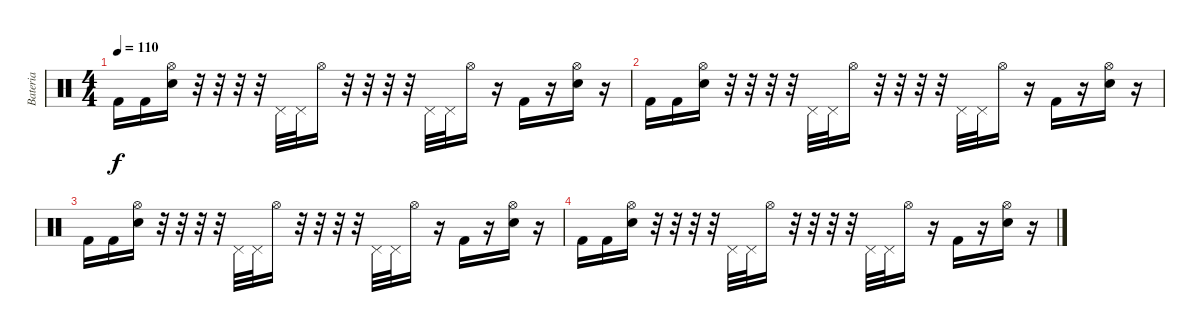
\track ("Bateria" "Bateria") {instrument percussion}
\staff {score}
\articulation defaults
\ts (4 4)
\tempo 110
\clef neutral
\ks c "Kick (hit) 2".16{dy f} "Kick (hit) 2".16
("Hi-Hat (open)" "Electric Snare (hit)").16 r.32 r.32 r.32 r.32 "Pedal Hi-Hat (hit)".32 "Pedal Hi-Hat (hit)".32 "Hi-Hat (open)".16 r.32 r.32 r.32 r.32 "Pedal Hi-Hat (hit)".32 "Pedal Hi-Hat (hit)".32 "Hi-Hat (open)".16 r.16 "Kick (hit) 2".16 r.16 ("Hi-Hat (open)" "Electric Snare (hit)").16 r.16 |
"Kick (hit) 2".16 "Kick (hit) 2".16 ("Hi-Hat (open)" "Electric Snare (hit)").16 r.32 r.32 r.32 r.32 "Pedal Hi-Hat (hit)".32 "Pedal Hi-Hat (hit)".32 "Hi-Hat (open)".16 r.32 r.32 r.32 r.32 "Pedal Hi-Hat (hit)".32 "Pedal Hi-Hat (hit)".32 "Hi-Hat (open)".16 r.16 "Kick (hit) 2".16 r.16 ("Hi-Hat (open)" "Electric Snare (hit)").16 r.16 |
"Kick (hit) 2".16{volume 11} "Kick (hit) 2".16 ("Hi-Hat (open)" "Electric Snare (hit)").16 r.32 r.32 r.32 r.32 "Pedal Hi-Hat (hit)".32 "Pedal Hi-Hat (hit)".32 "Hi-Hat (open)".16 r.32 r.32 r.32 r.32 "Pedal Hi-Hat (hit)".32 "Pedal Hi-Hat (hit)".32 "Hi-Hat (open)".16 r.16 "Kick (hit) 2".16 r.16 ("Hi-Hat (open)" "Electric Snare (hit)").16 r.16 |
"Kick (hit) 2".16{volume 5} "Kick (hit) 2".16 ("Hi-Hat (open)" "Electric Snare (hit)").16 r.32 r.32 r.32 r.32 "Pedal Hi-Hat (hit)".32 "Pedal Hi-Hat (hit)".32 "Hi-Hat (open)".16 r.32 r.32 r.32 r.32{volume 1} "Pedal Hi-Hat (hit)".32 "Pedal Hi-Hat (hit)".32 "Hi-Hat (open)".16 r.16 "Kick (hit) 2".16 r.16 ("Hi-Hat (open)" "Electric Snare (hit)").16 r.16
